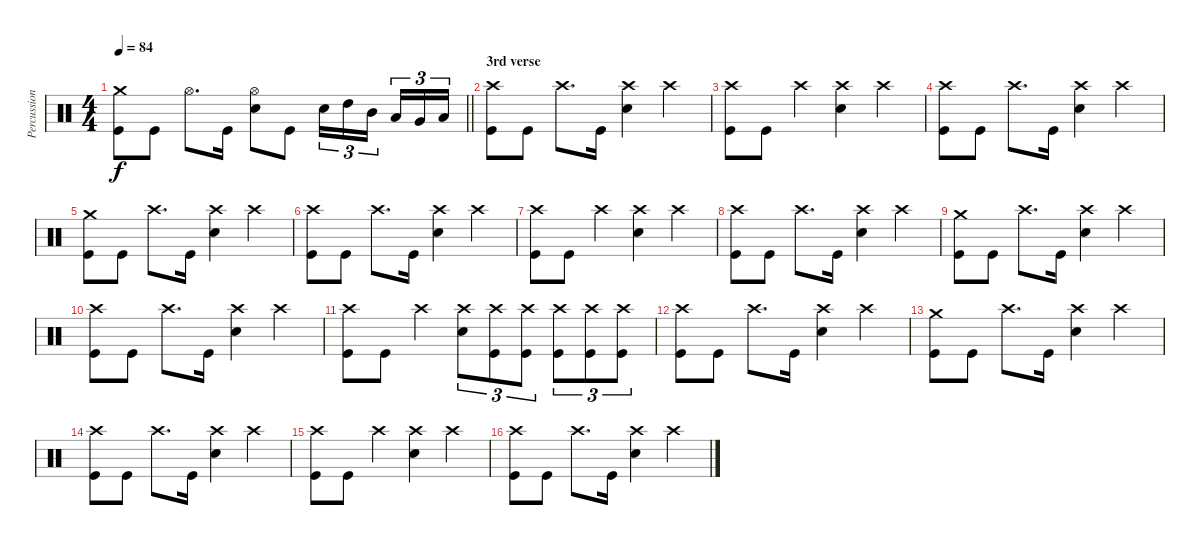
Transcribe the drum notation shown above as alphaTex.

\track ("Percussions" "Percussion") {instrument percussion}
\staff {score}
\articulation defaults
\ts (4 4)
\tempo 84
\clef neutral
\barLineRight lightlight
\ks c
("Crash medium (hit)" "Kick (hit)").8{dy f} "Kick (hit)".8 "Hi-Hat (open)".8{d} "Kick (hit)".16 ("Electric Snare (hit)" "Hi-Hat (open)").8 "Kick (hit)".8 "Electric Snare (hit)".16{tu (3 2)} "High Tom (hit)".16{tu (3 2)} "Mid Tom (hit)".16{tu (3 2) beam splitsecondary} "Low Tom (hit)".16{tu (3 2)} "Very Low Tom (hit)".16{tu (3 2)} "Low Floor Tom (hit)".16{tu (3 2)} |
\section ("" "3rd verse")
("Crash high (hit)" "Kick (hit)").8 "Kick (hit)".8 "Crash high (hit)".8{d} "Kick (hit)".16 ("Electric Snare (hit)" "Crash high (hit)").4 "Crash high (hit)".4 |
("Crash high (hit)" "Kick (hit)").8 "Kick (hit)".8 "Crash high (hit)".4 ("Electric Snare (hit)" "Crash high (hit)").4 "Crash high (hit)".4 |
("Crash high (hit)" "Kick (hit)").8 "Kick (hit)".8 "Crash high (hit)".8{d} "Kick (hit)".16 ("Electric Snare (hit)" "Crash high (hit)").4 "Crash high (hit)".4 |
("Crash medium (hit)" "Kick (hit)").8 "Kick (hit)".8 "Crash high (hit)".8{d} "Kick (hit)".16 ("Electric Snare (hit)" "Crash high (hit)").4 "Crash high (hit)".4 |
("Crash high (hit)" "Kick (hit)").8 "Kick (hit)".8 "Crash high (hit)".8{d} "Kick (hit)".16 ("Electric Snare (hit)" "Crash high (hit)").4 "Crash high (hit)".4 |
("Crash high (hit)" "Kick (hit)").8 "Kick (hit)".8 "Crash high (hit)".4 ("Electric Snare (hit)" "Crash high (hit)").4 "Crash high (hit)".4 |
("Crash high (hit)" "Kick (hit)").8 "Kick (hit)".8 "Crash high (hit)".8{d} "Kick (hit)".16 ("Electric Snare (hit)" "Crash high (hit)").4 "Crash high (hit)".4 |
("Crash medium (hit)" "Kick (hit)").8 "Kick (hit)".8 "Crash high (hit)".8{d} "Kick (hit)".16 ("Electric Snare (hit)" "Crash high (hit)").4 "Crash high (hit)".4 |
("Crash high (hit)" "Kick (hit)").8 "Kick (hit)".8 "Crash high (hit)".8{d} "Kick (hit)".16 ("Electric Snare (hit)" "Crash high (hit)").4 "Crash high (hit)".4 |
("Crash high (hit)" "Kick (hit)").8 "Kick (hit)".8 "Crash high (hit)".4 ("Electric Snare (hit)" "Crash high (hit)").8{tu (3 2)} ("Crash high (hit)" "Kick (hit)").8{tu (3 2)} ("Crash high (hit)" "Kick (hit)").8{tu (3 2)} ("Crash high (hit)" "Kick (hit)").8{tu (3 2)} ("Crash high (hit)" "Kick (hit)").8{tu (3 2)} ("Crash high (hit)" "Kick (hit)").8{tu (3 2)} |
("Crash high (hit)" "Kick (hit)").8 "Kick (hit)".8 "Crash high (hit)".8{d} "Kick (hit)".16 ("Electric Snare (hit)" "Crash high (hit)").4 "Crash high (hit)".4 |
("Crash medium (hit)" "Kick (hit)").8 "Kick (hit)".8 "Crash high (hit)".8{d} "Kick (hit)".16 ("Electric Snare (hit)" "Crash high (hit)").4 "Crash high (hit)".4 |
("Crash high (hit)" "Kick (hit)").8 "Kick (hit)".8 "Crash high (hit)".8{d} "Kick (hit)".16 ("Electric Snare (hit)" "Crash high (hit)").4 "Crash high (hit)".4 |
("Crash high (hit)" "Kick (hit)").8 "Kick (hit)".8 "Crash high (hit)".4 ("Electric Snare (hit)" "Crash high (hit)").4 "Crash high (hit)".4 |
("Crash high (hit)" "Kick (hit)").8 "Kick (hit)".8 "Crash high (hit)".8{d} "Kick (hit)".16 ("Electric Snare (hit)" "Crash high (hit)").4 "Crash high (hit)".4
